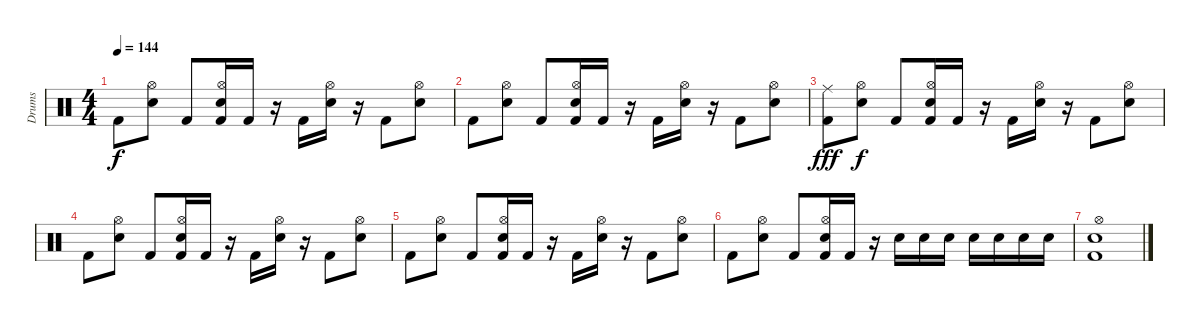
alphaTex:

\track ("Drums" "Drums") {instrument percussion}
\staff {score}
\articulation defaults
\ts (4 4)
\tempo 144
\clef neutral
\ks c "Kick (hit) 2".8{dy f}
("Hi-Hat (open)" "Snare (hit) 2").8 "Kick (hit) 2".8 ("Hi-Hat (open)" "Snare (hit) 2" "Kick (hit) 2").16 "Kick (hit) 2".16 r.16 "Kick (hit) 2".16 ("Hi-Hat (open)" "Snare (hit) 2").16 r.16 "Kick (hit) 2".8 ("Hi-Hat (open)" "Snare (hit) 2").8 |
"Kick (hit) 2".8 ("Hi-Hat (open)" "Snare (hit) 2").8 "Kick (hit) 2".8 ("Hi-Hat (open)" "Snare (hit) 2" "Kick (hit) 2").16 "Kick (hit) 2".16 r.16 "Kick (hit) 2".16 ("Hi-Hat (open)" "Snare (hit) 2").16 r.16 "Kick (hit) 2".8 ("Hi-Hat (open)" "Snare (hit) 2").8 |
("Ride (middle)" "Kick (hit) 2").8{dy fff} ("Hi-Hat (open)" "Snare (hit) 2").8{dy f} "Kick (hit) 2".8 ("Hi-Hat (open)" "Snare (hit) 2" "Kick (hit) 2").16 "Kick (hit) 2".16 r.16 "Kick (hit) 2".16 ("Hi-Hat (open)" "Snare (hit) 2").16 r.16 "Kick (hit) 2".8 ("Hi-Hat (open)" "Snare (hit) 2").8 |
"Kick (hit) 2".8 ("Hi-Hat (open)" "Snare (hit) 2").8 "Kick (hit) 2".8 ("Hi-Hat (open)" "Snare (hit) 2" "Kick (hit) 2").16 "Kick (hit) 2".16 r.16 "Kick (hit) 2".16 ("Hi-Hat (open)" "Snare (hit) 2").16 r.16 "Kick (hit) 2".8 ("Hi-Hat (open)" "Snare (hit) 2").8 |
"Kick (hit) 2".8 ("Hi-Hat (open)" "Snare (hit) 2").8 "Kick (hit) 2".8 ("Hi-Hat (open)" "Snare (hit) 2" "Kick (hit) 2").16 "Kick (hit) 2".16 r.16 "Kick (hit) 2".16 ("Hi-Hat (open)" "Snare (hit) 2").16 r.16 "Kick (hit) 2".8 ("Hi-Hat (open)" "Snare (hit) 2").8 |
"Kick (hit) 2".8 ("Hi-Hat (open)" "Snare (hit) 2").8 "Kick (hit) 2".8 ("Hi-Hat (open)" "Snare (hit) 2" "Kick (hit) 2").16 "Kick (hit) 2".16 r.16 "Electric Snare (hit)".16 "Electric Snare (hit)".16 "Electric Snare (hit)".16 "Electric Snare (hit)".16 "Electric Snare (hit)".16 "Electric Snare (hit)".16 "Electric Snare (hit)".16 |
("Hi-Hat (open)" "Snare (hit) 2" "Kick (hit) 2").1
